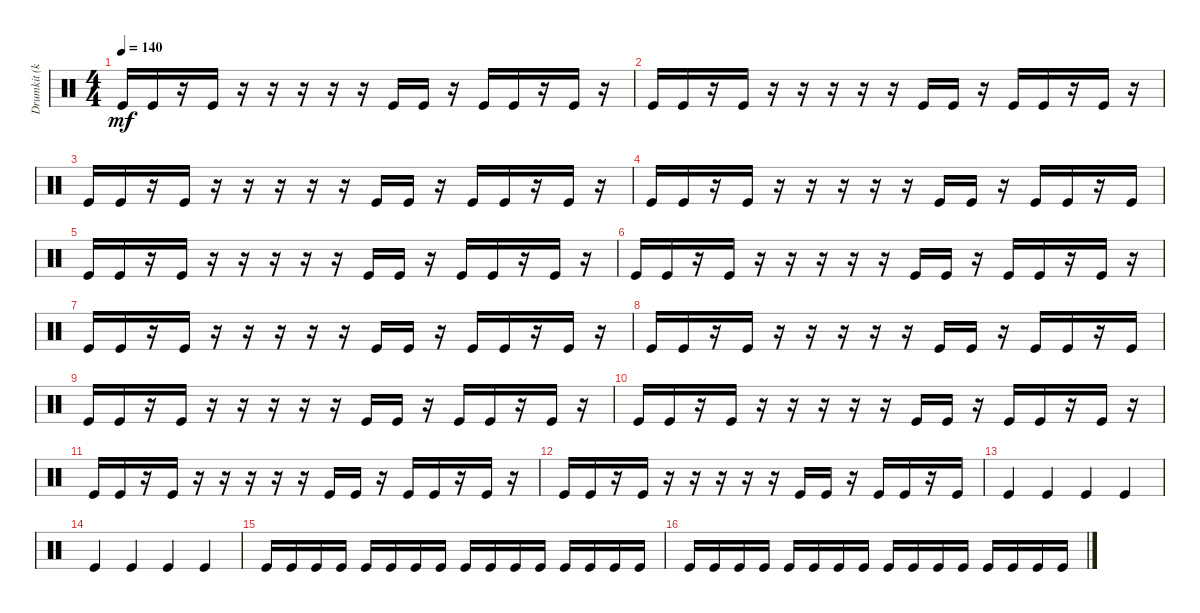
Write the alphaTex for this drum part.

\track ("Drumkit (kicks)" "Drumkit (k") {instrument percussion}
\staff {score}
\articulation defaults
\ts (4 4)
\tempo 140
\clef neutral
\ks c "Kick (hit)".16{dy mf} "Kick (hit)".16
r.16 "Kick (hit)".16 r.16 r.16 r.16 r.16 r.16 "Kick (hit)".16 "Kick (hit)".16 r.16 "Kick (hit)".16 "Kick (hit)".16 r.16 "Kick (hit)".16 r.16 |
"Kick (hit)".16 "Kick (hit)".16 r.16 "Kick (hit)".16 r.16 r.16 r.16 r.16 r.16 "Kick (hit)".16 "Kick (hit)".16 r.16 "Kick (hit)".16 "Kick (hit)".16 r.16 "Kick (hit)".16 r.16 |
"Kick (hit)".16 "Kick (hit)".16 r.16 "Kick (hit)".16 r.16 r.16 r.16 r.16 r.16 "Kick (hit)".16 "Kick (hit)".16 r.16 "Kick (hit)".16 "Kick (hit)".16 r.16 "Kick (hit)".16 r.16 |
"Kick (hit)".16 "Kick (hit)".16 r.16 "Kick (hit)".16 r.16 r.16 r.16 r.16 r.16 "Kick (hit)".16 "Kick (hit)".16 r.16 "Kick (hit)".16 "Kick (hit)".16 r.16 "Kick (hit)".16 |
"Kick (hit)".16 "Kick (hit)".16 r.16 "Kick (hit)".16 r.16 r.16 r.16 r.16 r.16 "Kick (hit)".16 "Kick (hit)".16 r.16 "Kick (hit)".16 "Kick (hit)".16 r.16 "Kick (hit)".16 r.16 |
"Kick (hit)".16 "Kick (hit)".16 r.16 "Kick (hit)".16 r.16 r.16 r.16 r.16 r.16 "Kick (hit)".16 "Kick (hit)".16 r.16 "Kick (hit)".16 "Kick (hit)".16 r.16 "Kick (hit)".16 r.16 |
"Kick (hit)".16 "Kick (hit)".16 r.16 "Kick (hit)".16 r.16 r.16 r.16 r.16 r.16 "Kick (hit)".16 "Kick (hit)".16 r.16 "Kick (hit)".16 "Kick (hit)".16 r.16 "Kick (hit)".16 r.16 |
"Kick (hit)".16 "Kick (hit)".16 r.16 "Kick (hit)".16 r.16 r.16 r.16 r.16 r.16 "Kick (hit)".16 "Kick (hit)".16 r.16 "Kick (hit)".16 "Kick (hit)".16 r.16 "Kick (hit)".16 |
"Kick (hit)".16 "Kick (hit)".16 r.16 "Kick (hit)".16 r.16 r.16 r.16 r.16 r.16 "Kick (hit)".16 "Kick (hit)".16 r.16 "Kick (hit)".16 "Kick (hit)".16 r.16 "Kick (hit)".16 r.16 |
"Kick (hit)".16 "Kick (hit)".16 r.16 "Kick (hit)".16 r.16 r.16 r.16 r.16 r.16 "Kick (hit)".16 "Kick (hit)".16 r.16 "Kick (hit)".16 "Kick (hit)".16 r.16 "Kick (hit)".16 r.16 |
"Kick (hit)".16 "Kick (hit)".16 r.16 "Kick (hit)".16 r.16 r.16 r.16 r.16 r.16 "Kick (hit)".16 "Kick (hit)".16 r.16 "Kick (hit)".16 "Kick (hit)".16 r.16 "Kick (hit)".16 r.16 |
"Kick (hit)".16 "Kick (hit)".16 r.16 "Kick (hit)".16 r.16 r.16 r.16 r.16 r.16 "Kick (hit)".16 "Kick (hit)".16 r.16 "Kick (hit)".16 "Kick (hit)".16 r.16 "Kick (hit)".16 |
"Kick (hit)".4 "Kick (hit)".4 "Kick (hit)".4 "Kick (hit)".4 |
"Kick (hit)".4 "Kick (hit)".4 "Kick (hit)".4 "Kick (hit)".4 |
"Kick (hit)".16 "Kick (hit)".16 "Kick (hit)".16 "Kick (hit)".16 "Kick (hit)".16 "Kick (hit)".16 "Kick (hit)".16 "Kick (hit)".16 "Kick (hit)".16 "Kick (hit)".16 "Kick (hit)".16 "Kick (hit)".16 "Kick (hit)".16 "Kick (hit)".16 "Kick (hit)".16 "Kick (hit)".16 |
"Kick (hit)".16 "Kick (hit)".16 "Kick (hit)".16 "Kick (hit)".16 "Kick (hit)".16 "Kick (hit)".16 "Kick (hit)".16 "Kick (hit)".16 "Kick (hit)".16 "Kick (hit)".16 "Kick (hit)".16 "Kick (hit)".16 "Kick (hit)".16 "Kick (hit)".16 "Kick (hit)".16 "Kick (hit)".16
